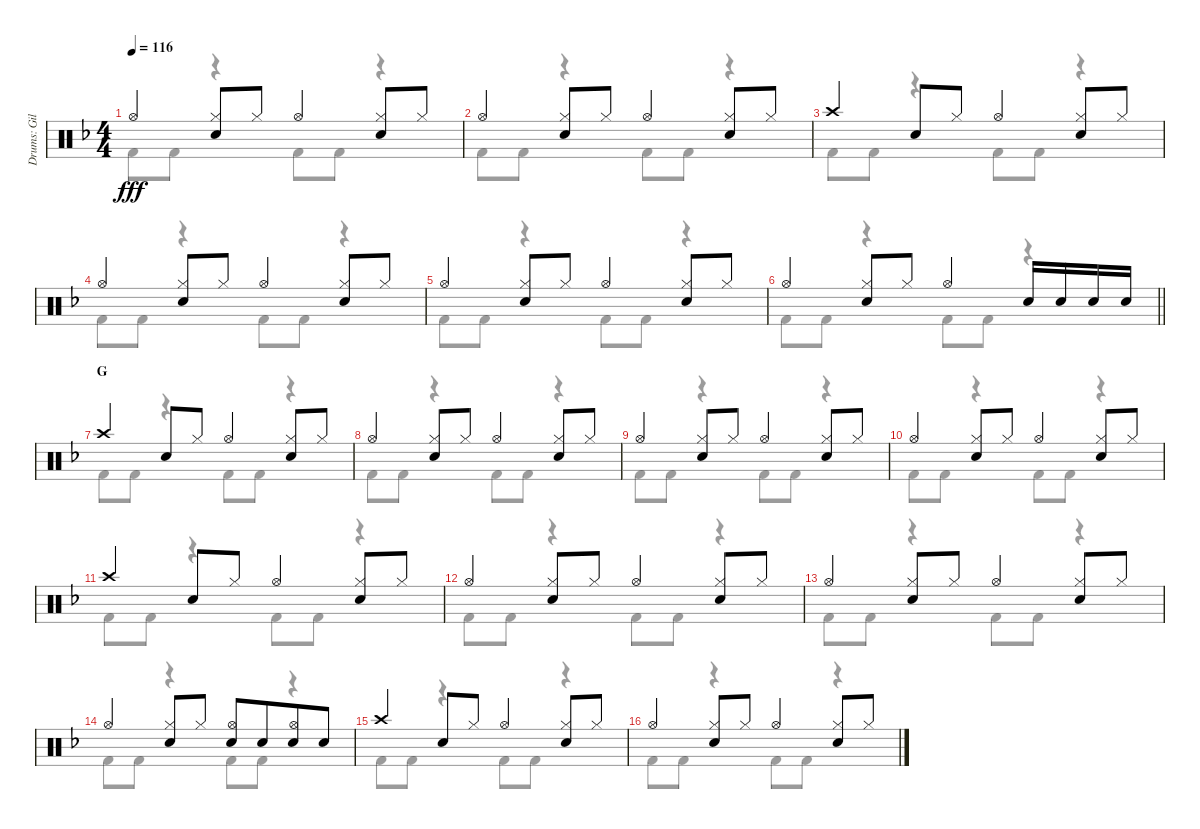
\track ("Drums: Gil" "Drums: Gil") {instrument percussion}
\staff {score}
\articulation defaults
\voice
\ts (4 4)
\tempo 116
\clef neutral
\ks f "Hi-Hat (open)".4{dy fff beam merge}
("Hi-Hat (closed)" "Snare (hit) 2").8 "Hi-Hat (closed)".8 "Hi-Hat (open)".4{beam merge} ("Hi-Hat (closed)" "Snare (hit) 2").8 "Hi-Hat (closed)".8 |
"Hi-Hat (open)".4{beam merge} ("Hi-Hat (closed)" "Snare (hit) 2").8 "Hi-Hat (closed)".8 "Hi-Hat (open)".4{beam merge} ("Hi-Hat (closed)" "Snare (hit) 2").8 "Hi-Hat (closed)".8 |
"Crash high (hit)".4{beam merge} "Snare (hit) 2".8 "Hi-Hat (closed)".8 "Hi-Hat (open)".4{beam merge} ("Hi-Hat (closed)" "Snare (hit) 2").8 "Hi-Hat (closed)".8 |
"Hi-Hat (open)".4{beam merge} ("Hi-Hat (closed)" "Snare (hit) 2").8 "Hi-Hat (closed)".8 "Hi-Hat (open)".4{beam merge} ("Hi-Hat (closed)" "Snare (hit) 2").8 "Hi-Hat (closed)".8 |
"Hi-Hat (open)".4{beam merge} ("Hi-Hat (closed)" "Snare (hit) 2").8 "Hi-Hat (closed)".8 "Hi-Hat (open)".4{beam merge} ("Hi-Hat (closed)" "Snare (hit) 2").8 "Hi-Hat (closed)".8 |
\barLineRight lightlight "Hi-Hat (open)".4{beam merge}
("Hi-Hat (closed)" "Snare (hit) 2").8 "Hi-Hat (closed)".8 "Hi-Hat (open)".4{beam merge} "Snare (hit) 2".16 "Snare (hit) 2".16{beam merge} "Snare (hit) 2".16{beam merge} "Snare (hit) 2".16 |
\section ("" "G")
"Crash high (hit)".4{beam merge} "Snare (hit) 2".8 "Hi-Hat (closed)".8 "Hi-Hat (open)".4{beam merge} ("Hi-Hat (closed)" "Snare (hit) 2").8 "Hi-Hat (closed)".8 |
"Hi-Hat (open)".4{beam merge} ("Hi-Hat (closed)" "Snare (hit) 2").8 "Hi-Hat (closed)".8 "Hi-Hat (open)".4{beam merge} ("Hi-Hat (closed)" "Snare (hit) 2").8 "Hi-Hat (closed)".8 |
"Hi-Hat (open)".4{beam merge} ("Hi-Hat (closed)" "Snare (hit) 2").8 "Hi-Hat (closed)".8 "Hi-Hat (open)".4{beam merge} ("Hi-Hat (closed)" "Snare (hit) 2").8 "Hi-Hat (closed)".8 |
"Hi-Hat (open)".4{beam merge} ("Hi-Hat (closed)" "Snare (hit) 2").8 "Hi-Hat (closed)".8 "Hi-Hat (open)".4{beam merge} ("Hi-Hat (closed)" "Snare (hit) 2").8 "Hi-Hat (closed)".8 |
"Crash high (hit)".4{beam merge} "Snare (hit) 2".8 "Hi-Hat (closed)".8 "Hi-Hat (open)".4{beam merge} ("Hi-Hat (closed)" "Snare (hit) 2").8 "Hi-Hat (closed)".8 |
"Hi-Hat (open)".4{beam merge} ("Hi-Hat (closed)" "Snare (hit) 2").8 "Hi-Hat (closed)".8 "Hi-Hat (open)".4{beam merge} ("Hi-Hat (closed)" "Snare (hit) 2").8 "Hi-Hat (closed)".8 |
"Hi-Hat (open)".4{beam merge} ("Hi-Hat (closed)" "Snare (hit) 2").8 "Hi-Hat (closed)".8 "Hi-Hat (open)".4{beam merge} ("Hi-Hat (closed)" "Snare (hit) 2").8 "Hi-Hat (closed)".8 |
"Hi-Hat (open)".4{beam merge} ("Hi-Hat (closed)" "Snare (hit) 2").8 "Hi-Hat (closed)".8 ("Hi-Hat (open)" "Snare (hit) 2").8{beam merge} "Snare (hit) 2".8{beam merge} ("Hi-Hat (open)" "Snare (hit) 2").8{beam merge} "Snare (hit) 2".8 |
"Crash high (hit)".4{beam merge} "Snare (hit) 2".8 "Hi-Hat (closed)".8 "Hi-Hat (open)".4{beam merge} ("Hi-Hat (closed)" "Snare (hit) 2").8 "Hi-Hat (closed)".8 |
"Hi-Hat (open)".4{beam merge} ("Hi-Hat (closed)" "Snare (hit) 2").8 "Hi-Hat (closed)".8 "Hi-Hat (open)".4{beam merge} ("Hi-Hat (closed)" "Snare (hit) 2").8 "Hi-Hat (closed)".8
\voice
\clef neutral
\ottava regular
\simile none
\ks f "Kick (hit) 2".8{dy fff} "Kick (hit) 2".8
r.4 "Kick (hit) 2".8 "Kick (hit) 2".8 r.4 |
"Kick (hit) 2".8 "Kick (hit) 2".8 r.4 "Kick (hit) 2".8 "Kick (hit) 2".8 r.4 |
"Kick (hit) 2".8 "Kick (hit) 2".8 r.4 "Kick (hit) 2".8 "Kick (hit) 2".8 r.4 |
"Kick (hit) 2".8 "Kick (hit) 2".8 r.4 "Kick (hit) 2".8 "Kick (hit) 2".8 r.4 |
"Kick (hit) 2".8 "Kick (hit) 2".8 r.4 "Kick (hit) 2".8 "Kick (hit) 2".8 r.4 |
\barLineRight lightlight "Kick (hit) 2".8 "Kick (hit) 2".8
r.4 "Kick (hit) 2".8 "Kick (hit) 2".8 r.4 |
"Kick (hit) 2".8 "Kick (hit) 2".8 r.4 "Kick (hit) 2".8 "Kick (hit) 2".8 r.4 |
"Kick (hit) 2".8 "Kick (hit) 2".8 r.4 "Kick (hit) 2".8 "Kick (hit) 2".8 r.4 |
"Kick (hit) 2".8 "Kick (hit) 2".8 r.4 "Kick (hit) 2".8 "Kick (hit) 2".8 r.4 |
"Kick (hit) 2".8 "Kick (hit) 2".8 r.4 "Kick (hit) 2".8 "Kick (hit) 2".8 r.4 |
"Kick (hit) 2".8 "Kick (hit) 2".8 r.4 "Kick (hit) 2".8 "Kick (hit) 2".8 r.4 |
"Kick (hit) 2".8 "Kick (hit) 2".8 r.4 "Kick (hit) 2".8 "Kick (hit) 2".8 r.4 |
"Kick (hit) 2".8 "Kick (hit) 2".8 r.4 "Kick (hit) 2".8 "Kick (hit) 2".8 r.4 |
"Kick (hit) 2".8 "Kick (hit) 2".8 r.4 "Kick (hit) 2".8 "Kick (hit) 2".8 r.4 |
"Kick (hit) 2".8 "Kick (hit) 2".8 r.4 "Kick (hit) 2".8 "Kick (hit) 2".8 r.4 |
"Kick (hit) 2".8 "Kick (hit) 2".8 r.4 "Kick (hit) 2".8 "Kick (hit) 2".8 r.4
